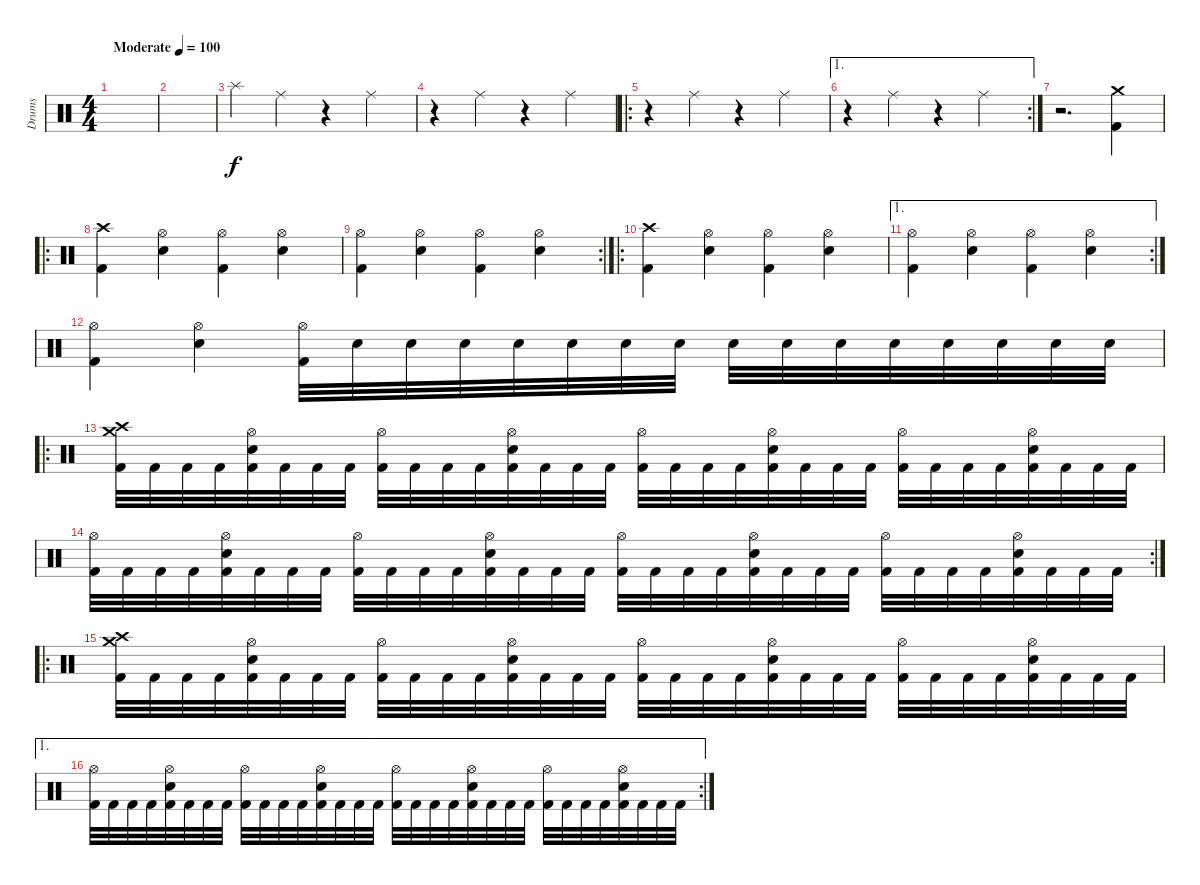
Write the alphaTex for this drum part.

\track ("Drums" "Drums") {instrument percussion}
\staff {score}
\articulation defaults
\ts (4 4)
\tempo (100 "Moderate")
\clef neutral
\ks c
|
|
"Splash (hit)".4 "Ride (middle)".4 r.4 "Ride (middle)".4 |
r.4 "Ride (middle)".4 r.4 "Ride (middle)".4 |
\ro
r.4 "Ride (middle)".4 r.4 "Ride (middle)".4 |
\ae 1
\rc 2
r.4 "Ride (middle)".4 r.4 "Ride (middle)".4 |
r.2{d} ("Crash medium (hit)" "Kick (hit) 2").4 |
\ro
("Crash high (hit)" "Kick (hit) 2").4 ("Hi-Hat (open)" "Electric Snare (hit)").4 ("Hi-Hat (open)" "Kick (hit) 2").4 ("Hi-Hat (open)" "Electric Snare (hit)").4 |
\rc 2
("Hi-Hat (open)" "Kick (hit) 2").4 ("Hi-Hat (open)" "Electric Snare (hit)").4 ("Hi-Hat (open)" "Kick (hit) 2").4 ("Hi-Hat (open)" "Electric Snare (hit)").4 |
\ro
("Crash high (hit)" "Kick (hit) 2").4 ("Hi-Hat (open)" "Electric Snare (hit)").4 ("Hi-Hat (open)" "Kick (hit) 2").4 ("Hi-Hat (open)" "Electric Snare (hit)").4 |
\ae 1
\rc 2
("Hi-Hat (open)" "Kick (hit) 2").4 ("Hi-Hat (open)" "Electric Snare (hit)").4 ("Hi-Hat (open)" "Kick (hit) 2").4 ("Hi-Hat (open)" "Electric Snare (hit)").4 |
("Hi-Hat (open)" "Kick (hit) 2").4 ("Hi-Hat (open)" "Electric Snare (hit)").4 ("Hi-Hat (open)" "Kick (hit) 2").32 "Electric Snare (hit)".32 "Electric Snare (hit)".32 "Electric Snare (hit)".32 "Electric Snare (hit)".32 "Electric Snare (hit)".32 "Electric Snare (hit)".32 "Electric Snare (hit)".32 "Electric Snare (hit)".32 "Electric Snare (hit)".32 "Electric Snare (hit)".32 "Electric Snare (hit)".32 "Electric Snare (hit)".32 "Electric Snare (hit)".32 "Electric Snare (hit)".32 "Electric Snare (hit)".32 |
\ro
("Crash high (hit)" "Crash medium (hit)" "Kick (hit) 2").32 "Kick (hit) 2".32 "Kick (hit) 2".32 "Kick (hit) 2".32 ("Hi-Hat (open)" "Electric Snare (hit)" "Kick (hit) 2").32 "Kick (hit) 2".32 "Kick (hit) 2".32 "Kick (hit) 2".32 ("Hi-Hat (open)" "Kick (hit) 2").32 "Kick (hit) 2".32 "Kick (hit) 2".32 "Kick (hit) 2".32 ("Hi-Hat (open)" "Electric Snare (hit)" "Kick (hit) 2").32 "Kick (hit) 2".32 "Kick (hit) 2".32 "Kick (hit) 2".32 ("Hi-Hat (open)" "Kick (hit) 2").32 "Kick (hit) 2".32 "Kick (hit) 2".32 "Kick (hit) 2".32 ("Hi-Hat (open)" "Electric Snare (hit)" "Kick (hit) 2").32 "Kick (hit) 2".32 "Kick (hit) 2".32 "Kick (hit) 2".32 ("Hi-Hat (open)" "Kick (hit) 2").32 "Kick (hit) 2".32 "Kick (hit) 2".32 "Kick (hit) 2".32 ("Hi-Hat (open)" "Electric Snare (hit)" "Kick (hit) 2").32 "Kick (hit) 2".32 "Kick (hit) 2".32 "Kick (hit) 2".32 |
\rc 2
("Hi-Hat (open)" "Kick (hit) 2").32 "Kick (hit) 2".32 "Kick (hit) 2".32 "Kick (hit) 2".32 ("Hi-Hat (open)" "Electric Snare (hit)" "Kick (hit) 2").32 "Kick (hit) 2".32 "Kick (hit) 2".32 "Kick (hit) 2".32 ("Hi-Hat (open)" "Kick (hit) 2").32 "Kick (hit) 2".32 "Kick (hit) 2".32 "Kick (hit) 2".32 ("Hi-Hat (open)" "Electric Snare (hit)" "Kick (hit) 2").32 "Kick (hit) 2".32 "Kick (hit) 2".32 "Kick (hit) 2".32 ("Hi-Hat (open)" "Kick (hit) 2").32 "Kick (hit) 2".32 "Kick (hit) 2".32 "Kick (hit) 2".32 ("Hi-Hat (open)" "Electric Snare (hit)" "Kick (hit) 2").32 "Kick (hit) 2".32 "Kick (hit) 2".32 "Kick (hit) 2".32 ("Hi-Hat (open)" "Kick (hit) 2").32 "Kick (hit) 2".32 "Kick (hit) 2".32 "Kick (hit) 2".32 ("Hi-Hat (open)" "Electric Snare (hit)" "Kick (hit) 2").32 "Kick (hit) 2".32 "Kick (hit) 2".32 "Kick (hit) 2".32 |
\ro
("Crash high (hit)" "Crash medium (hit)" "Kick (hit) 2").32 "Kick (hit) 2".32 "Kick (hit) 2".32 "Kick (hit) 2".32 ("Hi-Hat (open)" "Electric Snare (hit)" "Kick (hit) 2").32 "Kick (hit) 2".32 "Kick (hit) 2".32 "Kick (hit) 2".32 ("Hi-Hat (open)" "Kick (hit) 2").32 "Kick (hit) 2".32 "Kick (hit) 2".32 "Kick (hit) 2".32 ("Hi-Hat (open)" "Electric Snare (hit)" "Kick (hit) 2").32 "Kick (hit) 2".32 "Kick (hit) 2".32 "Kick (hit) 2".32 ("Hi-Hat (open)" "Kick (hit) 2").32 "Kick (hit) 2".32 "Kick (hit) 2".32 "Kick (hit) 2".32 ("Hi-Hat (open)" "Electric Snare (hit)" "Kick (hit) 2").32 "Kick (hit) 2".32 "Kick (hit) 2".32 "Kick (hit) 2".32 ("Hi-Hat (open)" "Kick (hit) 2").32 "Kick (hit) 2".32 "Kick (hit) 2".32 "Kick (hit) 2".32 ("Hi-Hat (open)" "Electric Snare (hit)" "Kick (hit) 2").32 "Kick (hit) 2".32 "Kick (hit) 2".32 "Kick (hit) 2".32 |
\ae 1
\rc 2
("Hi-Hat (open)" "Kick (hit) 2").32 "Kick (hit) 2".32 "Kick (hit) 2".32 "Kick (hit) 2".32 ("Hi-Hat (open)" "Electric Snare (hit)" "Kick (hit) 2").32 "Kick (hit) 2".32 "Kick (hit) 2".32 "Kick (hit) 2".32 ("Hi-Hat (open)" "Kick (hit) 2").32 "Kick (hit) 2".32 "Kick (hit) 2".32 "Kick (hit) 2".32 ("Hi-Hat (open)" "Electric Snare (hit)" "Kick (hit) 2").32 "Kick (hit) 2".32 "Kick (hit) 2".32 "Kick (hit) 2".32 ("Hi-Hat (open)" "Kick (hit) 2").32 "Kick (hit) 2".32 "Kick (hit) 2".32 "Kick (hit) 2".32 ("Hi-Hat (open)" "Electric Snare (hit)" "Kick (hit) 2").32 "Kick (hit) 2".32 "Kick (hit) 2".32 "Kick (hit) 2".32 ("Hi-Hat (open)" "Kick (hit) 2").32 "Kick (hit) 2".32 "Kick (hit) 2".32 "Kick (hit) 2".32 ("Hi-Hat (open)" "Electric Snare (hit)" "Kick (hit) 2").32 "Kick (hit) 2".32 "Kick (hit) 2".32 "Kick (hit) 2".32
